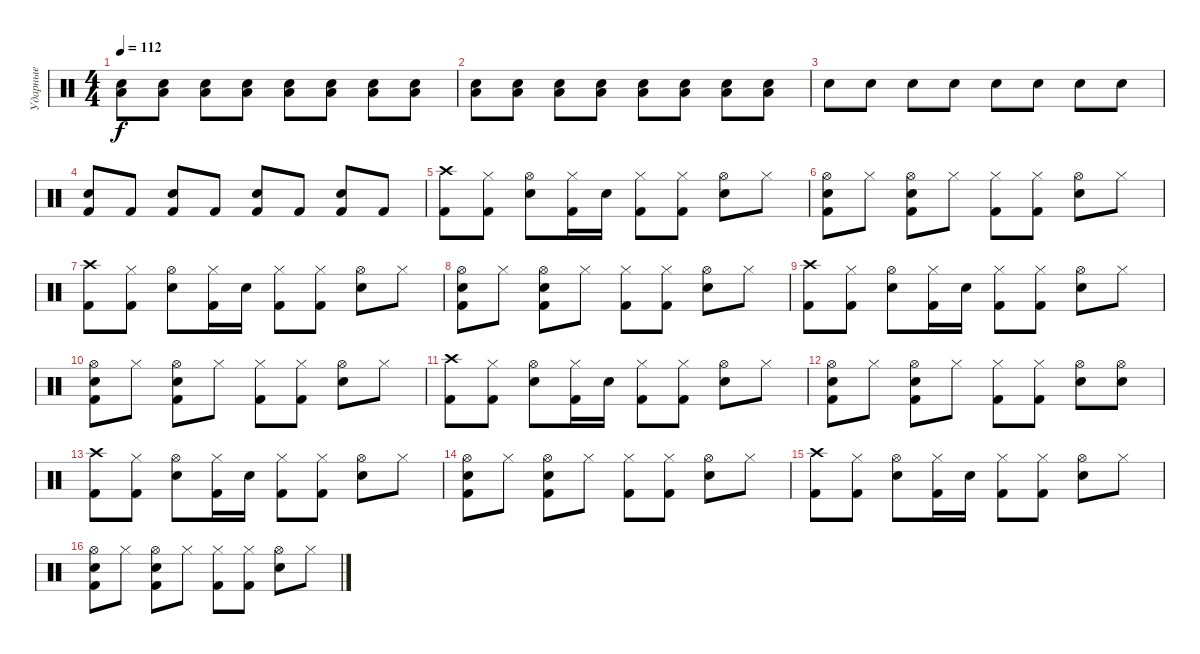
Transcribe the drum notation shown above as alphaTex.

\track ("Ударные" "Ударные") {instrument percussion}
\staff {score}
\articulation defaults
\ts (4 4)
\tempo 112
\clef neutral
\ks c
("Snare (hit) 2" "Low Floor Tom (hit)").8{dy f} ("Snare (hit) 2" "Low Floor Tom (hit)").8 ("Snare (hit) 2" "Low Floor Tom (hit)").8 ("Snare (hit) 2" "Low Floor Tom (hit)").8 ("Snare (hit) 2" "Low Floor Tom (hit)").8 ("Snare (hit) 2" "Low Floor Tom (hit)").8 ("Snare (hit) 2" "Low Floor Tom (hit)").8 ("Snare (hit) 2" "Low Floor Tom (hit)").8 |
("Snare (hit) 2" "Low Floor Tom (hit)").8 ("Snare (hit) 2" "Low Floor Tom (hit)").8 ("Snare (hit) 2" "Low Floor Tom (hit)").8 ("Snare (hit) 2" "Low Floor Tom (hit)").8 ("Snare (hit) 2" "Low Floor Tom (hit)").8 ("Snare (hit) 2" "Low Floor Tom (hit)").8 ("Snare (hit) 2" "Low Floor Tom (hit)").8 ("Snare (hit) 2" "Low Floor Tom (hit)").8 |
"Snare (hit) 2".8 "Snare (hit) 2".8 "Snare (hit) 2".8 "Snare (hit) 2".8 "Snare (hit) 2".8 "Snare (hit) 2".8 "Snare (hit) 2".8 "Snare (hit) 2".8 |
("Snare (hit) 2" "Kick (hit) 2").8{volume 13} "Kick (hit) 2".8 ("Snare (hit) 2" "Kick (hit) 2").8 "Kick (hit) 2".8 ("Snare (hit) 2" "Kick (hit) 2").8 "Kick (hit) 2".8 ("Snare (hit) 2" "Kick (hit) 2").8 "Kick (hit) 2".8 |
("Crash high (hit)" "Kick (hit) 2").8 ("Hi-Hat (closed)" "Kick (hit) 2").8 ("Hi-Hat (open)" "Snare (hit) 2").8 ("Hi-Hat (closed)" "Kick (hit) 2").16 "Snare (hit) 2".16 ("Hi-Hat (closed)" "Kick (hit) 2").8 ("Hi-Hat (closed)" "Kick (hit) 2").8 ("Hi-Hat (open)" "Snare (hit) 2").8 "Hi-Hat (closed)".8 |
("Hi-Hat (open)" "Kick (hit) 2" "Snare (hit) 2").8 "Hi-Hat (closed)".8 ("Hi-Hat (open)" "Snare (hit) 2" "Kick (hit) 2").8 "Hi-Hat (closed)".8 ("Hi-Hat (closed)" "Kick (hit) 2").8 ("Hi-Hat (closed)" "Kick (hit) 2").8 ("Hi-Hat (open)" "Snare (hit) 2").8 "Hi-Hat (closed)".8 |
("Crash high (hit)" "Kick (hit) 2").8 ("Hi-Hat (closed)" "Kick (hit) 2").8 ("Hi-Hat (open)" "Snare (hit) 2").8 ("Hi-Hat (closed)" "Kick (hit) 2").16 "Snare (hit) 2".16 ("Hi-Hat (closed)" "Kick (hit) 2").8 ("Hi-Hat (closed)" "Kick (hit) 2").8 ("Hi-Hat (open)" "Snare (hit) 2").8 "Hi-Hat (closed)".8 |
("Hi-Hat (open)" "Kick (hit) 2" "Snare (hit) 2").8 "Hi-Hat (closed)".8 ("Hi-Hat (open)" "Snare (hit) 2" "Kick (hit) 2").8 "Hi-Hat (closed)".8 ("Hi-Hat (closed)" "Kick (hit) 2").8 ("Hi-Hat (closed)" "Kick (hit) 2").8 ("Hi-Hat (open)" "Snare (hit) 2").8 "Hi-Hat (closed)".8 |
("Crash high (hit)" "Kick (hit) 2").8 ("Hi-Hat (closed)" "Kick (hit) 2").8 ("Hi-Hat (open)" "Snare (hit) 2").8 ("Hi-Hat (closed)" "Kick (hit) 2").16 "Snare (hit) 2".16 ("Hi-Hat (closed)" "Kick (hit) 2").8 ("Hi-Hat (closed)" "Kick (hit) 2").8 ("Hi-Hat (open)" "Snare (hit) 2").8 "Hi-Hat (closed)".8 |
("Hi-Hat (open)" "Kick (hit) 2" "Snare (hit) 2").8 "Hi-Hat (closed)".8 ("Hi-Hat (open)" "Snare (hit) 2" "Kick (hit) 2").8 "Hi-Hat (closed)".8 ("Hi-Hat (closed)" "Kick (hit) 2").8 ("Hi-Hat (closed)" "Kick (hit) 2").8 ("Hi-Hat (open)" "Snare (hit) 2").8 "Hi-Hat (closed)".8 |
("Crash high (hit)" "Kick (hit) 2").8 ("Hi-Hat (closed)" "Kick (hit) 2").8 ("Hi-Hat (open)" "Snare (hit) 2").8 ("Hi-Hat (closed)" "Kick (hit) 2").16 "Snare (hit) 2".16 ("Hi-Hat (closed)" "Kick (hit) 2").8 ("Hi-Hat (closed)" "Kick (hit) 2").8 ("Hi-Hat (open)" "Snare (hit) 2").8 "Hi-Hat (closed)".8 |
("Hi-Hat (open)" "Kick (hit) 2" "Snare (hit) 2").8 "Hi-Hat (closed)".8 ("Hi-Hat (open)" "Snare (hit) 2" "Kick (hit) 2").8 "Hi-Hat (closed)".8 ("Hi-Hat (closed)" "Kick (hit) 2").8 ("Hi-Hat (closed)" "Kick (hit) 2").8 ("Hi-Hat (open)" "Snare (hit) 2").8 ("Hi-Hat (open)" "Snare (hit) 2").8 |
("Crash high (hit)" "Kick (hit) 2").8 ("Hi-Hat (closed)" "Kick (hit) 2").8 ("Hi-Hat (open)" "Snare (hit) 2").8 ("Hi-Hat (closed)" "Kick (hit) 2").16 "Snare (hit) 2".16 ("Hi-Hat (closed)" "Kick (hit) 2").8 ("Hi-Hat (closed)" "Kick (hit) 2").8 ("Hi-Hat (open)" "Snare (hit) 2").8 "Hi-Hat (closed)".8 |
("Hi-Hat (open)" "Kick (hit) 2" "Snare (hit) 2").8 "Hi-Hat (closed)".8 ("Hi-Hat (open)" "Snare (hit) 2" "Kick (hit) 2").8 "Hi-Hat (closed)".8 ("Hi-Hat (closed)" "Kick (hit) 2").8 ("Hi-Hat (closed)" "Kick (hit) 2").8 ("Hi-Hat (open)" "Snare (hit) 2").8 "Hi-Hat (closed)".8 |
("Crash high (hit)" "Kick (hit) 2").8 ("Hi-Hat (closed)" "Kick (hit) 2").8 ("Hi-Hat (open)" "Snare (hit) 2").8 ("Hi-Hat (closed)" "Kick (hit) 2").16 "Snare (hit) 2".16 ("Hi-Hat (closed)" "Kick (hit) 2").8 ("Hi-Hat (closed)" "Kick (hit) 2").8 ("Hi-Hat (open)" "Snare (hit) 2").8 "Hi-Hat (closed)".8 |
("Hi-Hat (open)" "Kick (hit) 2" "Snare (hit) 2").8 "Hi-Hat (closed)".8 ("Hi-Hat (open)" "Snare (hit) 2" "Kick (hit) 2").8 "Hi-Hat (closed)".8 ("Hi-Hat (closed)" "Kick (hit) 2").8 ("Hi-Hat (closed)" "Kick (hit) 2").8 ("Hi-Hat (open)" "Snare (hit) 2").8 "Hi-Hat (closed)".8
